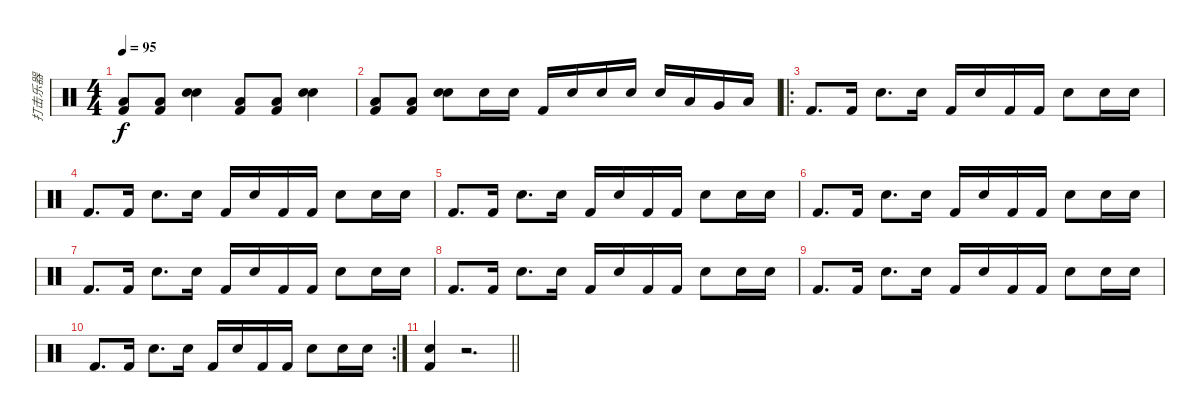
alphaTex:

\track ("打击乐器" "打击乐器") {instrument percussion}
\staff {score}
\articulation defaults
\ts (4 4)
\tempo 95
\clef neutral
\ks c
("Kick (hit) 2" "Low Floor Tom (hit)").8{dy f} ("Kick (hit) 2" "Low Floor Tom (hit)").8 ("Snare (hit) 2" "Hand Clap (hit)").4 ("Kick (hit) 2" "Low Floor Tom (hit)").8 ("Kick (hit) 2" "Low Floor Tom (hit)").8 ("Snare (hit) 2" "Hand Clap (hit)").4 |
("Kick (hit) 2" "Low Floor Tom (hit)").8 ("Kick (hit) 2" "Low Floor Tom (hit)").8 ("Snare (hit) 2" "Hand Clap (hit)").8 "Snare (hit) 2".16 "Snare (hit) 2".16 "Kick (hit) 2".16 "Electric Snare (hit)".16 "Electric Snare (hit)".16 "Electric Snare (hit)".16 "Electric Snare (hit)".16 "Low Tom (hit)".16 "Very Low Tom (hit)".16 "Low Floor Tom (hit)".16 |
\ro "Kick (hit) 2".8{d} "Kick (hit) 2".16 "Electric Snare (hit)".8{d} "Electric Snare (hit)".16 "Kick (hit) 2".16 "Electric Snare (hit)".16 "Kick (hit) 2".16 "Kick (hit) 2".16 "Electric Snare (hit)".8 "Electric Snare (hit)".16 "Electric Snare (hit)".16
|
"Kick (hit) 2".8{d} "Kick (hit) 2".16 "Electric Snare (hit)".8{d} "Electric Snare (hit)".16 "Kick (hit) 2".16 "Electric Snare (hit)".16 "Kick (hit) 2".16 "Kick (hit) 2".16 "Electric Snare (hit)".8 "Electric Snare (hit)".16 "Electric Snare (hit)".16 |
"Kick (hit) 2".8{d} "Kick (hit) 2".16 "Electric Snare (hit)".8{d} "Electric Snare (hit)".16 "Kick (hit) 2".16 "Electric Snare (hit)".16 "Kick (hit) 2".16 "Kick (hit) 2".16 "Electric Snare (hit)".8 "Electric Snare (hit)".16 "Electric Snare (hit)".16 |
"Kick (hit) 2".8{d} "Kick (hit) 2".16 "Electric Snare (hit)".8{d} "Electric Snare (hit)".16 "Kick (hit) 2".16 "Electric Snare (hit)".16 "Kick (hit) 2".16 "Kick (hit) 2".16 "Electric Snare (hit)".8 "Electric Snare (hit)".16 "Electric Snare (hit)".16 |
"Kick (hit) 2".8{d} "Kick (hit) 2".16 "Electric Snare (hit)".8{d} "Electric Snare (hit)".16 "Kick (hit) 2".16 "Electric Snare (hit)".16 "Kick (hit) 2".16 "Kick (hit) 2".16 "Electric Snare (hit)".8 "Electric Snare (hit)".16 "Electric Snare (hit)".16 |
"Kick (hit) 2".8{d} "Kick (hit) 2".16 "Electric Snare (hit)".8{d} "Electric Snare (hit)".16 "Kick (hit) 2".16 "Electric Snare (hit)".16 "Kick (hit) 2".16 "Kick (hit) 2".16 "Electric Snare (hit)".8 "Electric Snare (hit)".16 "Electric Snare (hit)".16 |
"Kick (hit) 2".8{d} "Kick (hit) 2".16 "Electric Snare (hit)".8{d} "Electric Snare (hit)".16 "Kick (hit) 2".16 "Electric Snare (hit)".16 "Kick (hit) 2".16 "Kick (hit) 2".16 "Electric Snare (hit)".8 "Electric Snare (hit)".16 "Electric Snare (hit)".16 |
\rc 2 "Kick (hit) 2".8{d} "Kick (hit) 2".16 "Electric Snare (hit)".8{d} "Electric Snare (hit)".16 "Kick (hit) 2".16 "Electric Snare (hit)".16 "Kick (hit) 2".16 "Kick (hit) 2".16 "Electric Snare (hit)".8 "Electric Snare (hit)".16 "Electric Snare (hit)".16
|
\barLineRight lightlight
("Electric Snare (hit)" "Kick (hit) 2").4 r.2{d}
